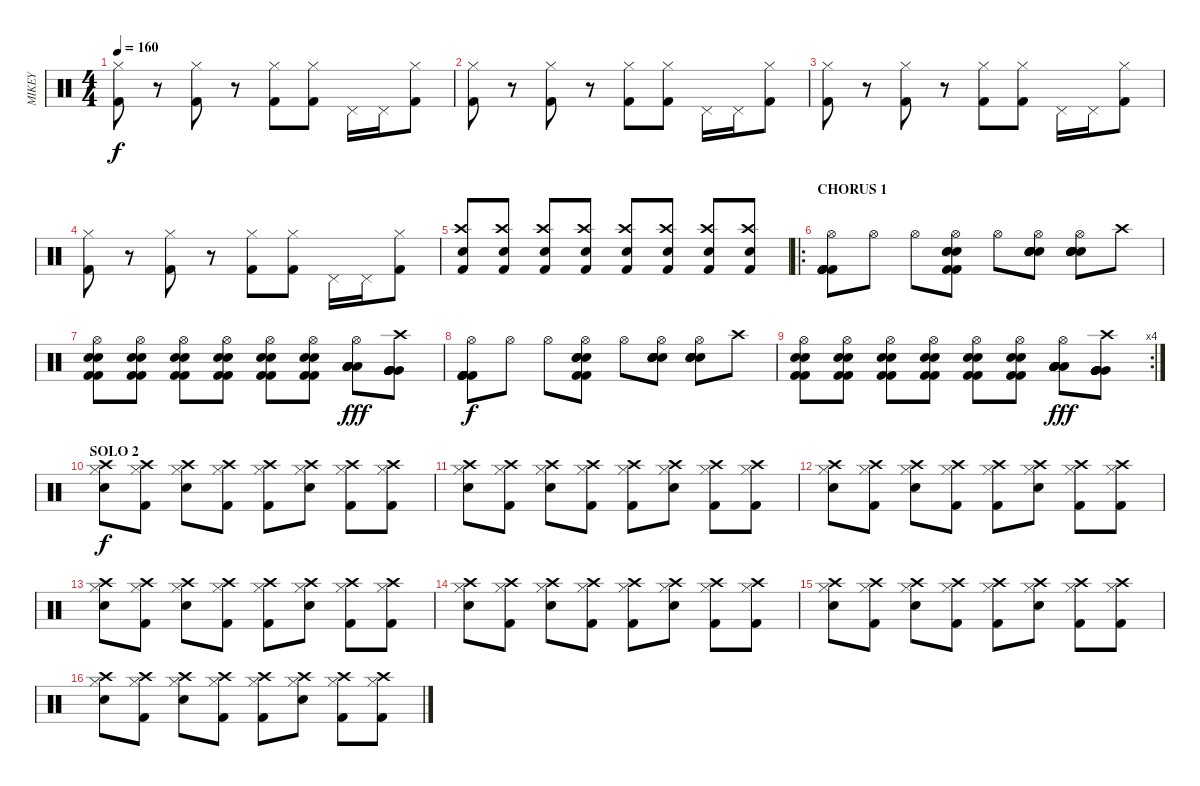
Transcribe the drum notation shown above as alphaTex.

\track ("MIKEY" "MIKEY") {instrument percussion}
\staff {score}
\articulation defaults
\ts (4 4)
\tempo 160
\clef neutral
\ks c
("Kick (hit) 2" "Hi-Hat (closed)").8{dy f} r.8 ("Kick (hit) 2" "Hi-Hat (closed)").8 r.8 ("Kick (hit) 2" "Hi-Hat (closed)").8 ("Kick (hit) 2" "Hi-Hat (closed)").8 "Pedal Hi-Hat (hit)".16 "Pedal Hi-Hat (hit)".16 ("Kick (hit) 2" "Hi-Hat (closed)").8 |
("Kick (hit) 2" "Hi-Hat (closed)").8 r.8 ("Kick (hit) 2" "Hi-Hat (closed)").8 r.8 ("Kick (hit) 2" "Hi-Hat (closed)").8 ("Kick (hit) 2" "Hi-Hat (closed)").8 "Pedal Hi-Hat (hit)".16 "Pedal Hi-Hat (hit)".16 ("Kick (hit) 2" "Hi-Hat (closed)").8 |
("Kick (hit) 2" "Hi-Hat (closed)").8 r.8 ("Kick (hit) 2" "Hi-Hat (closed)").8 r.8 ("Kick (hit) 2" "Hi-Hat (closed)").8 ("Kick (hit) 2" "Hi-Hat (closed)").8 "Pedal Hi-Hat (hit)".16 "Pedal Hi-Hat (hit)".16 ("Kick (hit) 2" "Hi-Hat (closed)").8 |
("Kick (hit) 2" "Hi-Hat (closed)").8 r.8 ("Kick (hit) 2" "Hi-Hat (closed)").8 r.8 ("Kick (hit) 2" "Hi-Hat (closed)").8 ("Kick (hit) 2" "Hi-Hat (closed)").8 "Pedal Hi-Hat (hit)".16 "Pedal Hi-Hat (hit)".16 ("Kick (hit) 2" "Hi-Hat (closed)").8 |
("Crash high (hit)" "Kick (hit) 2" "Electric Snare (hit)").8 ("Crash high (hit)" "Kick (hit) 2" "Electric Snare (hit)").8 ("Crash high (hit)" "Kick (hit) 2" "Electric Snare (hit)").8 ("Crash high (hit)" "Kick (hit) 2" "Electric Snare (hit)").8 ("Crash high (hit)" "Kick (hit) 2" "Electric Snare (hit)").8 ("Crash high (hit)" "Kick (hit) 2" "Electric Snare (hit)").8 ("Crash high (hit)" "Kick (hit) 2" "Electric Snare (hit)").8 ("Crash high (hit)" "Kick (hit) 2" "Electric Snare (hit)").8 |
\ro
\section ("" "CHORUS 1")
("Kick (hit) 2" "Kick (hit) 2" "Kick (hit) 2" "Kick (hit) 2" "Kick (hit) 2" "Hi-Hat (open)").8 "Hi-Hat (open)".8 "Hi-Hat (open)".8 ("Snare (hit) 2" "Kick (hit) 2" "Snare (hit) 2" "Kick (hit) 2" "Snare (hit) 2" "Hi-Hat (open)").8 "Hi-Hat (open)".8 ("Snare (hit) 2" "Snare (hit) 2" "Snare (hit) 2" "Snare (hit) 2" "Snare (hit) 2" "Hi-Hat (open)").8 ("Snare (hit) 2" "Snare (hit) 2" "Snare (hit) 2" "Snare (hit) 2" "Snare (hit) 2" "Hi-Hat (open)").8 "Crash high (hit)".8 |
("Electric Snare (hit)" "Kick (hit) 2" "Kick (hit) 2" "Electric Snare (hit)" "Hi-Hat (open)").8 ("Electric Snare (hit)" "Kick (hit) 2" "Kick (hit) 2" "Electric Snare (hit)" "Hi-Hat (open)").8 ("Electric Snare (hit)" "Kick (hit) 2" "Kick (hit) 2" "Electric Snare (hit)" "Hi-Hat (open)").8 ("Electric Snare (hit)" "Kick (hit) 2" "Kick (hit) 2" "Electric Snare (hit)" "Hi-Hat (open)").8 ("Electric Snare (hit)" "Kick (hit) 2" "Kick (hit) 2" "Electric Snare (hit)" "Hi-Hat (open)").8 ("Electric Snare (hit)" "Kick (hit) 2" "Kick (hit) 2" "Electric Snare (hit)" "Hi-Hat (open)").8 ("Low Floor Tom (hit)" "Low Floor Tom (hit)" "Low Floor Tom (hit)" "Low Floor Tom (hit)" "Low Floor Tom (hit)" "Hi-Hat (open)").8{dy fff} ("Very Low Tom (hit)" "Very Low Tom (hit)" "Very Low Tom (hit)" "Very Low Tom (hit)" "Very Low Tom (hit)" "Crash high (hit)").8 |
("Kick (hit) 2" "Kick (hit) 2" "Kick (hit) 2" "Kick (hit) 2" "Kick (hit) 2" "Hi-Hat (open)").8{dy f} "Hi-Hat (open)".8 "Hi-Hat (open)".8 ("Snare (hit) 2" "Kick (hit) 2" "Snare (hit) 2" "Kick (hit) 2" "Snare (hit) 2" "Hi-Hat (open)").8 "Hi-Hat (open)".8 ("Snare (hit) 2" "Snare (hit) 2" "Snare (hit) 2" "Snare (hit) 2" "Snare (hit) 2" "Hi-Hat (open)").8 ("Snare (hit) 2" "Snare (hit) 2" "Snare (hit) 2" "Snare (hit) 2" "Snare (hit) 2" "Hi-Hat (open)").8 "Crash high (hit)".8 |
\rc 4
("Electric Snare (hit)" "Kick (hit) 2" "Kick (hit) 2" "Electric Snare (hit)" "Hi-Hat (open)").8 ("Electric Snare (hit)" "Kick (hit) 2" "Kick (hit) 2" "Electric Snare (hit)" "Hi-Hat (open)").8 ("Electric Snare (hit)" "Kick (hit) 2" "Kick (hit) 2" "Electric Snare (hit)" "Hi-Hat (open)").8 ("Electric Snare (hit)" "Kick (hit) 2" "Kick (hit) 2" "Electric Snare (hit)" "Hi-Hat (open)").8 ("Electric Snare (hit)" "Kick (hit) 2" "Kick (hit) 2" "Electric Snare (hit)" "Hi-Hat (open)").8 ("Electric Snare (hit)" "Kick (hit) 2" "Kick (hit) 2" "Electric Snare (hit)" "Hi-Hat (open)").8 ("Low Floor Tom (hit)" "Low Floor Tom (hit)" "Low Floor Tom (hit)" "Low Floor Tom (hit)" "Low Floor Tom (hit)" "Hi-Hat (open)").8{dy fff} ("Very Low Tom (hit)" "Very Low Tom (hit)" "Very Low Tom (hit)" "Very Low Tom (hit)" "Very Low Tom (hit)" "Crash high (hit)").8 |
\section ("" "SOLO 2")
("Hi-Hat (closed)" "Crash high (hit)" "Electric Snare (hit)").8{dy f} ("Hi-Hat (closed)" "Crash high (hit)" "Kick (hit) 2").8 ("Hi-Hat (closed)" "Crash high (hit)" "Electric Snare (hit)").8 ("Hi-Hat (closed)" "Crash high (hit)" "Kick (hit) 2").8 ("Hi-Hat (closed)" "Crash high (hit)" "Kick (hit) 2").8 ("Hi-Hat (closed)" "Crash high (hit)" "Electric Snare (hit)").8 ("Hi-Hat (closed)" "Crash high (hit)" "Kick (hit) 2").8 ("Hi-Hat (closed)" "Crash high (hit)" "Kick (hit) 2").8 |
("Hi-Hat (closed)" "Crash high (hit)" "Electric Snare (hit)").8 ("Hi-Hat (closed)" "Crash high (hit)" "Kick (hit) 2").8 ("Hi-Hat (closed)" "Crash high (hit)" "Electric Snare (hit)").8 ("Hi-Hat (closed)" "Crash high (hit)" "Kick (hit) 2").8 ("Hi-Hat (closed)" "Crash high (hit)" "Kick (hit) 2").8 ("Hi-Hat (closed)" "Crash high (hit)" "Electric Snare (hit)").8 ("Hi-Hat (closed)" "Crash high (hit)" "Kick (hit) 2").8 ("Hi-Hat (closed)" "Crash high (hit)" "Kick (hit) 2").8 |
("Hi-Hat (closed)" "Crash high (hit)" "Electric Snare (hit)").8 ("Hi-Hat (closed)" "Crash high (hit)" "Kick (hit) 2").8 ("Hi-Hat (closed)" "Crash high (hit)" "Electric Snare (hit)").8 ("Hi-Hat (closed)" "Crash high (hit)" "Kick (hit) 2").8 ("Hi-Hat (closed)" "Crash high (hit)" "Kick (hit) 2").8 ("Hi-Hat (closed)" "Crash high (hit)" "Electric Snare (hit)").8 ("Hi-Hat (closed)" "Crash high (hit)" "Kick (hit) 2").8 ("Hi-Hat (closed)" "Crash high (hit)" "Kick (hit) 2").8 |
("Hi-Hat (closed)" "Crash high (hit)" "Electric Snare (hit)").8 ("Hi-Hat (closed)" "Crash high (hit)" "Kick (hit) 2").8 ("Hi-Hat (closed)" "Crash high (hit)" "Electric Snare (hit)").8 ("Hi-Hat (closed)" "Crash high (hit)" "Kick (hit) 2").8 ("Hi-Hat (closed)" "Crash high (hit)" "Kick (hit) 2").8 ("Hi-Hat (closed)" "Crash high (hit)" "Electric Snare (hit)").8 ("Hi-Hat (closed)" "Crash high (hit)" "Kick (hit) 2").8 ("Hi-Hat (closed)" "Crash high (hit)" "Kick (hit) 2").8 |
("Hi-Hat (closed)" "Crash high (hit)" "Electric Snare (hit)").8 ("Hi-Hat (closed)" "Crash high (hit)" "Kick (hit) 2").8 ("Hi-Hat (closed)" "Crash high (hit)" "Electric Snare (hit)").8 ("Hi-Hat (closed)" "Crash high (hit)" "Kick (hit) 2").8 ("Hi-Hat (closed)" "Crash high (hit)" "Kick (hit) 2").8 ("Hi-Hat (closed)" "Crash high (hit)" "Electric Snare (hit)").8 ("Hi-Hat (closed)" "Crash high (hit)" "Kick (hit) 2").8 ("Hi-Hat (closed)" "Crash high (hit)" "Kick (hit) 2").8 |
("Hi-Hat (closed)" "Crash high (hit)" "Electric Snare (hit)").8 ("Hi-Hat (closed)" "Crash high (hit)" "Kick (hit) 2").8 ("Hi-Hat (closed)" "Crash high (hit)" "Electric Snare (hit)").8 ("Hi-Hat (closed)" "Crash high (hit)" "Kick (hit) 2").8 ("Hi-Hat (closed)" "Crash high (hit)" "Kick (hit) 2").8 ("Hi-Hat (closed)" "Crash high (hit)" "Electric Snare (hit)").8 ("Hi-Hat (closed)" "Crash high (hit)" "Kick (hit) 2").8 ("Hi-Hat (closed)" "Crash high (hit)" "Kick (hit) 2").8 |
("Hi-Hat (closed)" "Crash high (hit)" "Electric Snare (hit)").8 ("Hi-Hat (closed)" "Crash high (hit)" "Kick (hit) 2").8 ("Hi-Hat (closed)" "Crash high (hit)" "Electric Snare (hit)").8 ("Hi-Hat (closed)" "Crash high (hit)" "Kick (hit) 2").8 ("Hi-Hat (closed)" "Crash high (hit)" "Kick (hit) 2").8 ("Hi-Hat (closed)" "Crash high (hit)" "Electric Snare (hit)").8 ("Hi-Hat (closed)" "Crash high (hit)" "Kick (hit) 2").8 ("Hi-Hat (closed)" "Crash high (hit)" "Kick (hit) 2").8
